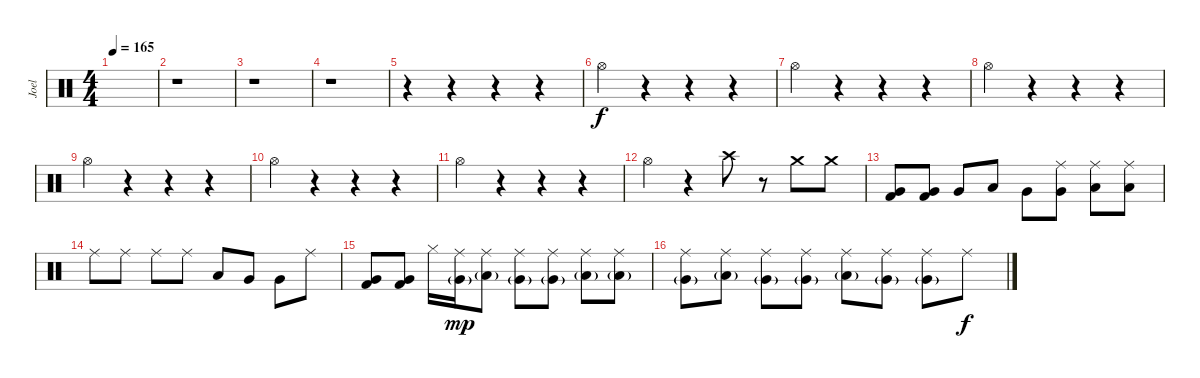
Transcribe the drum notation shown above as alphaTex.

\track ("Joel" "Joel") {instrument percussion}
\staff {score}
\articulation defaults
\ts (4 4)
\tempo 165
\clef neutral
\ks c
|
r.1 |
r.1 |
r.1 |
r.4 r.4 r.4 r.4 |
"Hi-Hat (open)".4 r.4 r.4 r.4 |
"Hi-Hat (open)".4 r.4 r.4 r.4 |
"Hi-Hat (open)".4 r.4 r.4 r.4 |
"Hi-Hat (open)".4 r.4 r.4 r.4 |
"Hi-Hat (open)".4 r.4 r.4 r.4 |
"Hi-Hat (open)".4 r.4 r.4 r.4 |
"Hi-Hat (open)".4 r.4 "Crash high (hit)".8 r.8 "Crash medium (hit)".8 "Crash medium (hit)".8 |
("Very Low Tom (hit)" "Kick (hit) 2").8 ("Very Low Tom (hit)" "Kick (hit) 2").8 "Very Low Tom (hit)".8 "Low Tom (hit)".8 "Very Low Tom (hit)".8 ("Ride (middle)" "Very Low Tom (hit)").8 ("Ride (middle)" "Low Tom (hit)").8 ("Ride (middle)" "Low Floor Tom (hit)").8 |
"Ride (middle)".8 "Ride (middle)".8 "Ride (middle)".8 "Ride (middle)".8 "Low Tom (hit)".8 "Very Low Tom (hit)".8 "Very Low Tom (hit)".8 "Ride (middle)".8 |
("Very Low Tom (hit)" "Kick (hit) 2").8 ("Very Low Tom (hit)" "Kick (hit) 2").8 "Hi-Hat (closed)".16 ("Ride (middle)" "Very Low Tom (hit)"{g}).16{dy mp} ("Ride (middle)" "Low Tom (hit)"{g}).8 ("Ride (middle)" "Very Low Tom (hit)"{g}).8 ("Ride (middle)" "Very Low Tom (hit)"{g}).8 ("Ride (middle)" "Low Tom (hit)"{g}).8 ("Ride (middle)" "Low Floor Tom (hit)"{g}).8 |
("Ride (middle)" "Very Low Tom (hit)"{g}).8 ("Ride (middle)" "Low Tom (hit)"{g}).8 ("Ride (middle)" "Very Low Tom (hit)"{g}).8 ("Ride (middle)" "Very Low Tom (hit)"{g}).8 ("Ride (middle)" "Low Tom (hit)"{g}).8 ("Ride (middle)" "Very Low Tom (hit)"{g}).8 ("Ride (middle)" "Very Low Tom (hit)"{g}).8 "Ride (middle)".8{dy f}
